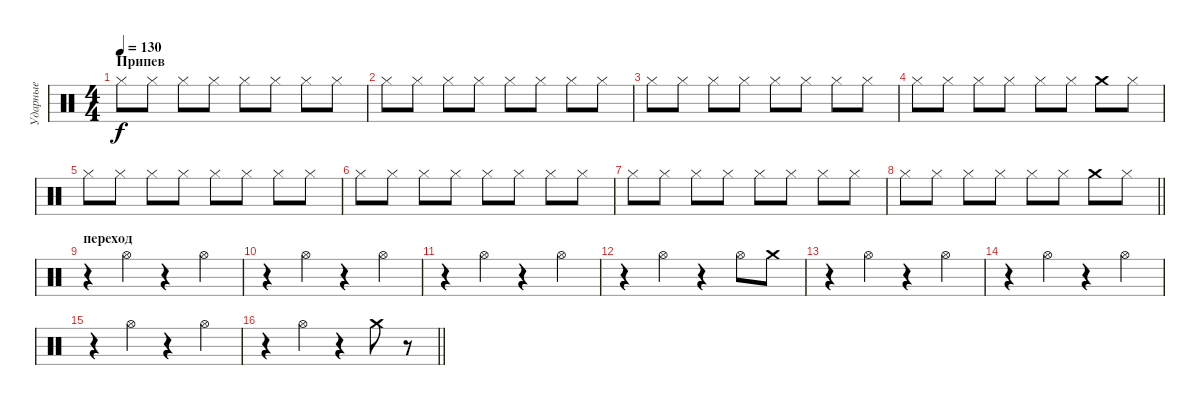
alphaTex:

\track ("Ударные" "Ударные") {instrument percussion}
\staff {score}
\articulation defaults
\ts (4 4)
\section ("" "Припев")
\tempo 130
\clef neutral
\ks c "Hi-Hat (closed)".8{dy f} "Hi-Hat (closed)".8 "Hi-Hat (closed)".8 "Hi-Hat (closed)".8 "Hi-Hat (closed)".8 "Hi-Hat (closed)".8 "Hi-Hat (closed)".8 "Hi-Hat (closed)".8
|
"Hi-Hat (closed)".8 "Hi-Hat (closed)".8 "Hi-Hat (closed)".8 "Hi-Hat (closed)".8 "Hi-Hat (closed)".8 "Hi-Hat (closed)".8 "Hi-Hat (closed)".8 "Hi-Hat (closed)".8 |
"Hi-Hat (closed)".8 "Hi-Hat (closed)".8 "Hi-Hat (closed)".8 "Hi-Hat (closed)".8 "Hi-Hat (closed)".8 "Hi-Hat (closed)".8 "Hi-Hat (closed)".8 "Hi-Hat (closed)".8 |
"Hi-Hat (closed)".8 "Hi-Hat (closed)".8 "Hi-Hat (closed)".8 "Hi-Hat (closed)".8 "Hi-Hat (closed)".8 "Hi-Hat (closed)".8 "Crash medium (hit)".8 "Hi-Hat (closed)".8 |
"Hi-Hat (closed)".8 "Hi-Hat (closed)".8 "Hi-Hat (closed)".8 "Hi-Hat (closed)".8 "Hi-Hat (closed)".8 "Hi-Hat (closed)".8 "Hi-Hat (closed)".8 "Hi-Hat (closed)".8 |
"Hi-Hat (closed)".8 "Hi-Hat (closed)".8 "Hi-Hat (closed)".8 "Hi-Hat (closed)".8 "Hi-Hat (closed)".8 "Hi-Hat (closed)".8 "Hi-Hat (closed)".8 "Hi-Hat (closed)".8 |
"Hi-Hat (closed)".8 "Hi-Hat (closed)".8 "Hi-Hat (closed)".8 "Hi-Hat (closed)".8 "Hi-Hat (closed)".8 "Hi-Hat (closed)".8 "Hi-Hat (closed)".8 "Hi-Hat (closed)".8 |
\barLineRight lightlight "Hi-Hat (closed)".8 "Hi-Hat (closed)".8 "Hi-Hat (closed)".8 "Hi-Hat (closed)".8 "Hi-Hat (closed)".8 "Hi-Hat (closed)".8 "Crash medium (hit)".8 "Hi-Hat (closed)".8
|
\section ("" "переход")
r.4 "Hi-Hat (open)".4 r.4 "Hi-Hat (open)".4 |
r.4 "Hi-Hat (open)".4 r.4 "Hi-Hat (open)".4 |
r.4 "Hi-Hat (open)".4 r.4 "Hi-Hat (open)".4 |
r.4 "Hi-Hat (open)".4 r.4 "Hi-Hat (open)".8 "Crash medium (hit)".8 |
r.4 "Hi-Hat (open)".4 r.4 "Hi-Hat (open)".4 |
r.4 "Hi-Hat (open)".4 r.4 "Hi-Hat (open)".4 |
r.4 "Hi-Hat (open)".4 r.4 "Hi-Hat (open)".4 |
\barLineRight lightlight
r.4 "Hi-Hat (open)".4 r.4 "Crash medium (hit)".8 r.8
